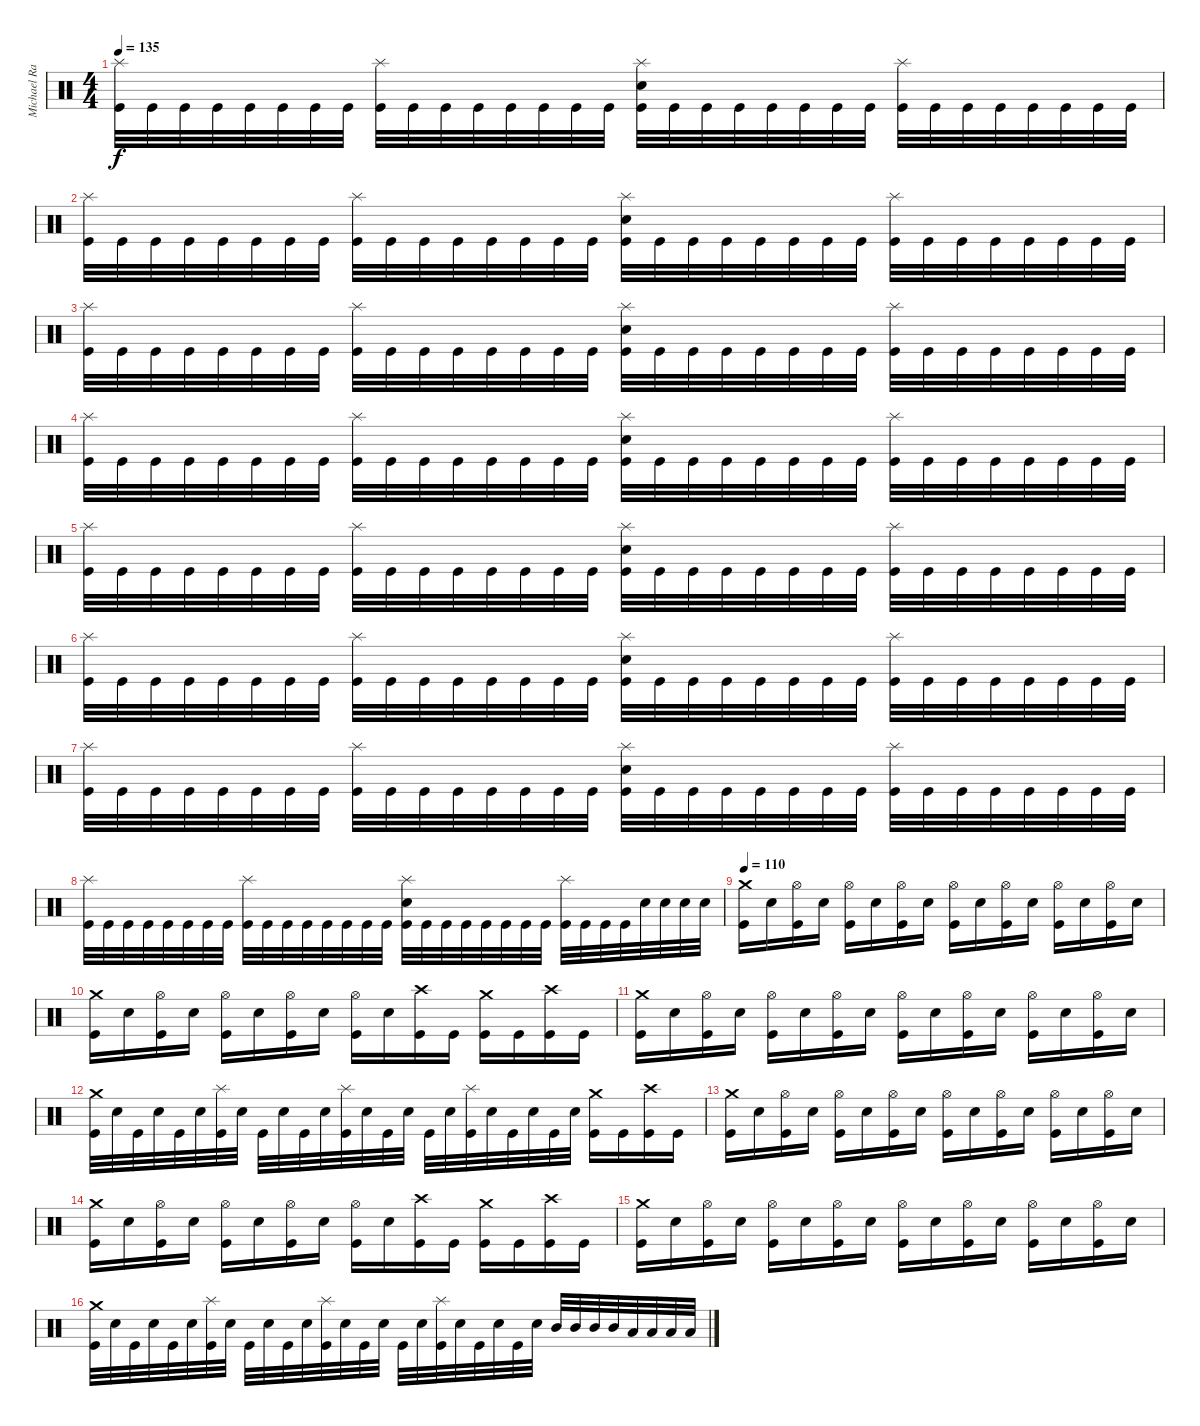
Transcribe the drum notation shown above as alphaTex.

\track ("Michael Ranne" "Michael Ra") {instrument percussion}
\staff {score}
\articulation defaults
\ts (4 4)
\tempo 135
\clef neutral
\ks c
("Splash (hit)" "Kick (hit)").32{dy f} "Kick (hit)".32 "Kick (hit)".32 "Kick (hit)".32 "Kick (hit)".32 "Kick (hit)".32 "Kick (hit)".32 "Kick (hit)".32 ("Splash (hit)" "Kick (hit)").32 "Kick (hit)".32 "Kick (hit)".32 "Kick (hit)".32 "Kick (hit)".32 "Kick (hit)".32 "Kick (hit)".32 "Kick (hit)".32 ("Splash (hit)" "Snare (hit) 2" "Kick (hit)").32 "Kick (hit)".32 "Kick (hit)".32 "Kick (hit)".32 "Kick (hit)".32 "Kick (hit)".32 "Kick (hit)".32 "Kick (hit)".32 ("Splash (hit)" "Kick (hit)").32 "Kick (hit)".32 "Kick (hit)".32 "Kick (hit)".32 "Kick (hit)".32 "Kick (hit)".32 "Kick (hit)".32 "Kick (hit)".32 |
("Splash (hit)" "Kick (hit)").32 "Kick (hit)".32 "Kick (hit)".32 "Kick (hit)".32 "Kick (hit)".32 "Kick (hit)".32 "Kick (hit)".32 "Kick (hit)".32 ("Splash (hit)" "Kick (hit)").32 "Kick (hit)".32 "Kick (hit)".32 "Kick (hit)".32 "Kick (hit)".32 "Kick (hit)".32 "Kick (hit)".32 "Kick (hit)".32 ("Splash (hit)" "Snare (hit) 2" "Kick (hit)").32 "Kick (hit)".32 "Kick (hit)".32 "Kick (hit)".32 "Kick (hit)".32 "Kick (hit)".32 "Kick (hit)".32 "Kick (hit)".32 ("Splash (hit)" "Kick (hit)").32 "Kick (hit)".32 "Kick (hit)".32 "Kick (hit)".32 "Kick (hit)".32 "Kick (hit)".32 "Kick (hit)".32 "Kick (hit)".32 |
("Splash (hit)" "Kick (hit)").32 "Kick (hit)".32 "Kick (hit)".32 "Kick (hit)".32 "Kick (hit)".32 "Kick (hit)".32 "Kick (hit)".32 "Kick (hit)".32 ("Splash (hit)" "Kick (hit)").32 "Kick (hit)".32 "Kick (hit)".32 "Kick (hit)".32 "Kick (hit)".32 "Kick (hit)".32 "Kick (hit)".32 "Kick (hit)".32 ("Splash (hit)" "Snare (hit) 2" "Kick (hit)").32 "Kick (hit)".32 "Kick (hit)".32 "Kick (hit)".32 "Kick (hit)".32 "Kick (hit)".32 "Kick (hit)".32 "Kick (hit)".32 ("Splash (hit)" "Kick (hit)").32 "Kick (hit)".32 "Kick (hit)".32 "Kick (hit)".32 "Kick (hit)".32 "Kick (hit)".32 "Kick (hit)".32 "Kick (hit)".32 |
("Splash (hit)" "Kick (hit)").32 "Kick (hit)".32 "Kick (hit)".32 "Kick (hit)".32 "Kick (hit)".32 "Kick (hit)".32 "Kick (hit)".32 "Kick (hit)".32 ("Splash (hit)" "Kick (hit)").32 "Kick (hit)".32 "Kick (hit)".32 "Kick (hit)".32 "Kick (hit)".32 "Kick (hit)".32 "Kick (hit)".32 "Kick (hit)".32 ("Splash (hit)" "Snare (hit) 2" "Kick (hit)").32 "Kick (hit)".32 "Kick (hit)".32 "Kick (hit)".32 "Kick (hit)".32 "Kick (hit)".32 "Kick (hit)".32 "Kick (hit)".32 ("Splash (hit)" "Kick (hit)").32 "Kick (hit)".32 "Kick (hit)".32 "Kick (hit)".32 "Kick (hit)".32 "Kick (hit)".32 "Kick (hit)".32 "Kick (hit)".32 |
("Splash (hit)" "Kick (hit)").32 "Kick (hit)".32 "Kick (hit)".32 "Kick (hit)".32 "Kick (hit)".32 "Kick (hit)".32 "Kick (hit)".32 "Kick (hit)".32 ("Splash (hit)" "Kick (hit)").32 "Kick (hit)".32 "Kick (hit)".32 "Kick (hit)".32 "Kick (hit)".32 "Kick (hit)".32 "Kick (hit)".32 "Kick (hit)".32 ("Splash (hit)" "Snare (hit) 2" "Kick (hit)").32 "Kick (hit)".32 "Kick (hit)".32 "Kick (hit)".32 "Kick (hit)".32 "Kick (hit)".32 "Kick (hit)".32 "Kick (hit)".32 ("Splash (hit)" "Kick (hit)").32 "Kick (hit)".32 "Kick (hit)".32 "Kick (hit)".32 "Kick (hit)".32 "Kick (hit)".32 "Kick (hit)".32 "Kick (hit)".32 |
("Splash (hit)" "Kick (hit)").32 "Kick (hit)".32 "Kick (hit)".32 "Kick (hit)".32 "Kick (hit)".32 "Kick (hit)".32 "Kick (hit)".32 "Kick (hit)".32 ("Splash (hit)" "Kick (hit)").32 "Kick (hit)".32 "Kick (hit)".32 "Kick (hit)".32 "Kick (hit)".32 "Kick (hit)".32 "Kick (hit)".32 "Kick (hit)".32 ("Splash (hit)" "Snare (hit) 2" "Kick (hit)").32 "Kick (hit)".32 "Kick (hit)".32 "Kick (hit)".32 "Kick (hit)".32 "Kick (hit)".32 "Kick (hit)".32 "Kick (hit)".32 ("Splash (hit)" "Kick (hit)").32 "Kick (hit)".32 "Kick (hit)".32 "Kick (hit)".32 "Kick (hit)".32 "Kick (hit)".32 "Kick (hit)".32 "Kick (hit)".32 |
("Splash (hit)" "Kick (hit)").32 "Kick (hit)".32 "Kick (hit)".32 "Kick (hit)".32 "Kick (hit)".32 "Kick (hit)".32 "Kick (hit)".32 "Kick (hit)".32 ("Splash (hit)" "Kick (hit)").32 "Kick (hit)".32 "Kick (hit)".32 "Kick (hit)".32 "Kick (hit)".32 "Kick (hit)".32 "Kick (hit)".32 "Kick (hit)".32 ("Splash (hit)" "Snare (hit) 2" "Kick (hit)").32 "Kick (hit)".32 "Kick (hit)".32 "Kick (hit)".32 "Kick (hit)".32 "Kick (hit)".32 "Kick (hit)".32 "Kick (hit)".32 ("Splash (hit)" "Kick (hit)").32 "Kick (hit)".32 "Kick (hit)".32 "Kick (hit)".32 "Kick (hit)".32 "Kick (hit)".32 "Kick (hit)".32 "Kick (hit)".32 |
("Splash (hit)" "Kick (hit)").32 "Kick (hit)".32 "Kick (hit)".32 "Kick (hit)".32 "Kick (hit)".32 "Kick (hit)".32 "Kick (hit)".32 "Kick (hit)".32 ("Splash (hit)" "Kick (hit)").32 "Kick (hit)".32 "Kick (hit)".32 "Kick (hit)".32 "Kick (hit)".32 "Kick (hit)".32 "Kick (hit)".32 "Kick (hit)".32 ("Splash (hit)" "Snare (hit) 2" "Kick (hit)").32 "Kick (hit)".32 "Kick (hit)".32 "Kick (hit)".32 "Kick (hit)".32 "Kick (hit)".32 "Kick (hit)".32 "Kick (hit)".32 ("Splash (hit)" "Kick (hit)").32 "Kick (hit)".32 "Kick (hit)".32 "Kick (hit)".32 "Snare (hit) 2".32 "Snare (hit) 2".32 "Snare (hit) 2".32 "Snare (hit) 2".32 |
\tempo 110
("Crash medium (hit)" "Kick (hit)").16 "Snare (hit) 2".16 ("Hi-Hat (open)" "Kick (hit)").16 "Snare (hit) 2".16 ("Hi-Hat (open)" "Kick (hit)").16 "Snare (hit) 2".16 ("Hi-Hat (open)" "Kick (hit)").16 "Snare (hit) 2".16 ("Hi-Hat (open)" "Kick (hit)").16 "Snare (hit) 2".16 ("Hi-Hat (open)" "Kick (hit)").16 "Snare (hit) 2".16 ("Hi-Hat (open)" "Kick (hit)").16 "Snare (hit) 2".16 ("Hi-Hat (open)" "Kick (hit)").16 "Snare (hit) 2".16 |
("Crash medium (hit)" "Kick (hit)").16 "Snare (hit) 2".16 ("Hi-Hat (open)" "Kick (hit)").16 "Snare (hit) 2".16 ("Hi-Hat (open)" "Kick (hit)").16 "Snare (hit) 2".16 ("Hi-Hat (open)" "Kick (hit)").16 "Snare (hit) 2".16 ("Hi-Hat (open)" "Kick (hit)").16 "Snare (hit) 2".16 ("Crash high (hit)" "Kick (hit)").16 "Kick (hit)".16 ("Crash medium (hit)" "Kick (hit)").16 "Kick (hit)".16 ("Crash high (hit)" "Kick (hit)").16 "Kick (hit)".16 |
("Crash medium (hit)" "Kick (hit)").16 "Snare (hit) 2".16 ("Hi-Hat (open)" "Kick (hit)").16 "Snare (hit) 2".16 ("Hi-Hat (open)" "Kick (hit)").16 "Snare (hit) 2".16 ("Hi-Hat (open)" "Kick (hit)").16 "Snare (hit) 2".16 ("Hi-Hat (open)" "Kick (hit)").16 "Snare (hit) 2".16 ("Hi-Hat (open)" "Kick (hit)").16 "Snare (hit) 2".16 ("Hi-Hat (open)" "Kick (hit)").16 "Snare (hit) 2".16 ("Hi-Hat (open)" "Kick (hit)").16 "Snare (hit) 2".16 |
("Crash medium (hit)" "Kick (hit)").32 "Snare (hit) 2".32 "Kick (hit)".32 "Snare (hit) 2".32 "Kick (hit)".32 "Snare (hit) 2".32 ("Splash (hit)" "Kick (hit)").32 "Snare (hit) 2".32 "Kick (hit)".32 "Snare (hit) 2".32 "Kick (hit)".32 "Snare (hit) 2".32 ("Splash (hit)" "Kick (hit)").32 "Snare (hit) 2".32 "Kick (hit)".32 "Snare (hit) 2".32 "Kick (hit)".32 "Snare (hit) 2".32 ("Splash (hit)" "Kick (hit)").32 "Snare (hit) 2".32 "Kick (hit)".32 "Snare (hit) 2".32 "Kick (hit)".32 "Snare (hit) 2".32 ("Crash medium (hit)" "Kick (hit)").16 "Kick (hit)".16 ("Crash high (hit)" "Kick (hit)").16 "Kick (hit)".16 |
("Crash medium (hit)" "Kick (hit)").16 "Snare (hit) 2".16 ("Hi-Hat (open)" "Kick (hit)").16 "Snare (hit) 2".16 ("Hi-Hat (open)" "Kick (hit)").16 "Snare (hit) 2".16 ("Hi-Hat (open)" "Kick (hit)").16 "Snare (hit) 2".16 ("Hi-Hat (open)" "Kick (hit)").16 "Snare (hit) 2".16 ("Hi-Hat (open)" "Kick (hit)").16 "Snare (hit) 2".16 ("Hi-Hat (open)" "Kick (hit)").16 "Snare (hit) 2".16 ("Hi-Hat (open)" "Kick (hit)").16 "Snare (hit) 2".16 |
("Crash medium (hit)" "Kick (hit)").16 "Snare (hit) 2".16 ("Hi-Hat (open)" "Kick (hit)").16 "Snare (hit) 2".16 ("Hi-Hat (open)" "Kick (hit)").16 "Snare (hit) 2".16 ("Hi-Hat (open)" "Kick (hit)").16 "Snare (hit) 2".16 ("Hi-Hat (open)" "Kick (hit)").16 "Snare (hit) 2".16 ("Crash high (hit)" "Kick (hit)").16 "Kick (hit)".16 ("Crash medium (hit)" "Kick (hit)").16 "Kick (hit)".16 ("Crash high (hit)" "Kick (hit)").16 "Kick (hit)".16 |
("Crash medium (hit)" "Kick (hit)").16 "Snare (hit) 2".16 ("Hi-Hat (open)" "Kick (hit)").16 "Snare (hit) 2".16 ("Hi-Hat (open)" "Kick (hit)").16 "Snare (hit) 2".16 ("Hi-Hat (open)" "Kick (hit)").16 "Snare (hit) 2".16 ("Hi-Hat (open)" "Kick (hit)").16 "Snare (hit) 2".16 ("Hi-Hat (open)" "Kick (hit)").16 "Snare (hit) 2".16 ("Hi-Hat (open)" "Kick (hit)").16 "Snare (hit) 2".16 ("Hi-Hat (open)" "Kick (hit)").16 "Snare (hit) 2".16 |
("Crash medium (hit)" "Kick (hit)").32 "Snare (hit) 2".32 "Kick (hit)".32 "Snare (hit) 2".32 "Kick (hit)".32 "Snare (hit) 2".32 ("Splash (hit)" "Kick (hit)").32 "Snare (hit) 2".32 "Kick (hit)".32 "Snare (hit) 2".32 "Kick (hit)".32 "Snare (hit) 2".32 ("Splash (hit)" "Kick (hit)").32 "Snare (hit) 2".32 "Kick (hit)".32 "Snare (hit) 2".32 "Kick (hit)".32 "Snare (hit) 2".32 ("Splash (hit)" "Kick (hit)").32 "Snare (hit) 2".32 "Kick (hit)".32 "Snare (hit) 2".32 "Kick (hit)".32 "Snare (hit) 2".32 "Mid Tom (hit)".32 "Mid Tom (hit)".32 "Mid Tom (hit)".32 "Mid Tom (hit)".32 "Low Tom (hit)".32 "Low Tom (hit)".32 "Low Tom (hit)".32 "Low Tom (hit)".32
